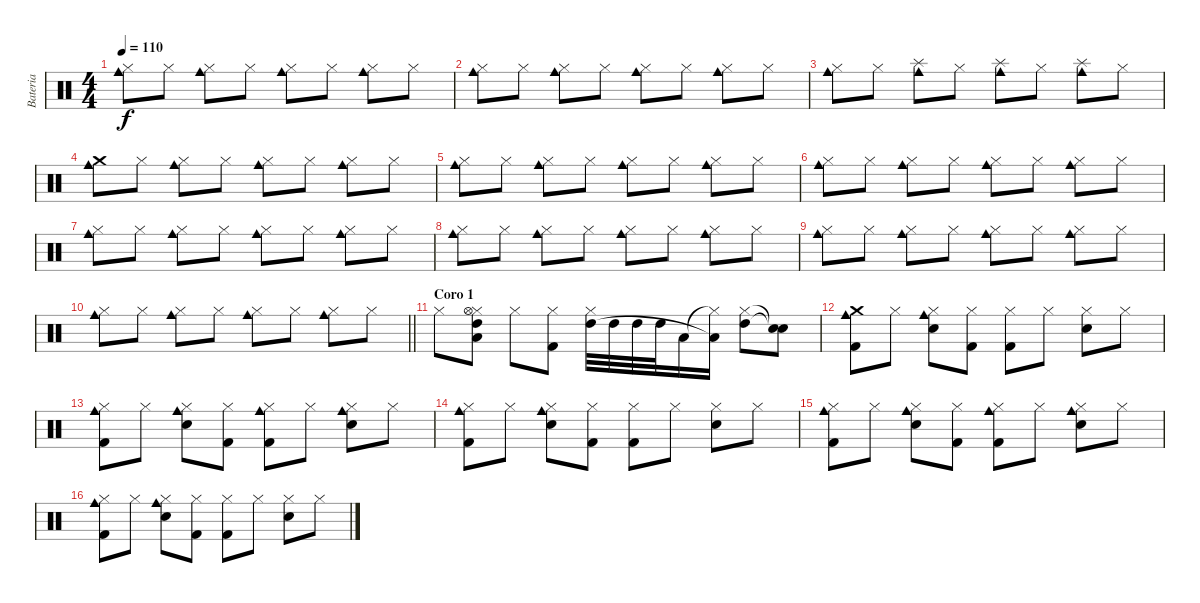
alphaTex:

\track ("Bateria" "Bateria") {instrument percussion}
\staff {score}
\articulation defaults
\ts (4 4)
\tempo 110
\clef neutral
\ks c
("Hi-Hat (closed)" "Cowbell medium (hit)").8{dy f} "Hi-Hat (closed)".8 ("Hi-Hat (closed)" "Cowbell medium (hit)").8 "Hi-Hat (closed)".8 ("Hi-Hat (closed)" "Cowbell medium (hit)").8 "Hi-Hat (closed)".8 ("Hi-Hat (closed)" "Cowbell medium (hit)").8 "Hi-Hat (closed)".8 |
("Hi-Hat (closed)" "Cowbell medium (hit)").8 "Hi-Hat (closed)".8 ("Hi-Hat (closed)" "Cowbell medium (hit)").8 "Hi-Hat (closed)".8 ("Hi-Hat (closed)" "Cowbell medium (hit)").8 "Hi-Hat (closed)".8 ("Hi-Hat (closed)" "Cowbell medium (hit)").8 "Hi-Hat (closed)".8 |
("Hi-Hat (closed)" "Cowbell medium (hit)").8 "Hi-Hat (closed)".8 ("Splash (hit)" "Cowbell medium (hit)").8 "Hi-Hat (closed)".8 ("Splash (hit)" "Cowbell medium (hit)").8 "Hi-Hat (closed)".8 ("Splash (hit)" "Cowbell medium (hit)").8 "Hi-Hat (closed)".8 |
("Crash medium (hit)" "Cowbell medium (hit)").8 "Hi-Hat (closed)".8 ("Hi-Hat (closed)" "Cowbell medium (hit)").8 "Hi-Hat (closed)".8 ("Hi-Hat (closed)" "Cowbell medium (hit)").8 "Hi-Hat (closed)".8 ("Hi-Hat (closed)" "Cowbell medium (hit)").8 "Hi-Hat (closed)".8 |
("Hi-Hat (closed)" "Cowbell medium (hit)").8 "Hi-Hat (closed)".8 ("Hi-Hat (closed)" "Cowbell medium (hit)").8 "Hi-Hat (closed)".8 ("Hi-Hat (closed)" "Cowbell medium (hit)").8 "Hi-Hat (closed)".8 ("Hi-Hat (closed)" "Cowbell medium (hit)").8 "Hi-Hat (closed)".8 |
("Hi-Hat (closed)" "Cowbell medium (hit)").8 "Hi-Hat (closed)".8 ("Hi-Hat (closed)" "Cowbell medium (hit)").8 "Hi-Hat (closed)".8 ("Hi-Hat (closed)" "Cowbell medium (hit)").8 "Hi-Hat (closed)".8 ("Hi-Hat (closed)" "Cowbell medium (hit)").8 "Hi-Hat (closed)".8 |
("Hi-Hat (closed)" "Cowbell medium (hit)").8 "Hi-Hat (closed)".8 ("Hi-Hat (closed)" "Cowbell medium (hit)").8 "Hi-Hat (closed)".8 ("Hi-Hat (closed)" "Cowbell medium (hit)").8 "Hi-Hat (closed)".8 ("Hi-Hat (closed)" "Cowbell medium (hit)").8 "Hi-Hat (closed)".8 |
("Hi-Hat (closed)" "Cowbell medium (hit)").8 "Hi-Hat (closed)".8 ("Hi-Hat (closed)" "Cowbell medium (hit)").8 "Hi-Hat (closed)".8 ("Hi-Hat (closed)" "Cowbell medium (hit)").8 "Hi-Hat (closed)".8 ("Hi-Hat (closed)" "Cowbell medium (hit)").8 "Hi-Hat (closed)".8 |
("Hi-Hat (closed)" "Cowbell medium (hit)").8 "Hi-Hat (closed)".8 ("Hi-Hat (closed)" "Cowbell medium (hit)").8 "Hi-Hat (closed)".8 ("Hi-Hat (closed)" "Cowbell medium (hit)").8 "Hi-Hat (closed)".8 ("Hi-Hat (closed)" "Cowbell medium (hit)").8 "Hi-Hat (closed)".8 |
\barLineRight lightlight
("Hi-Hat (closed)" "Cowbell medium (hit)").8 "Hi-Hat (closed)".8 ("Hi-Hat (closed)" "Cowbell medium (hit)").8 "Hi-Hat (closed)".8 ("Hi-Hat (closed)" "Cowbell medium (hit)").8 "Hi-Hat (closed)".8 ("Hi-Hat (closed)" "Cowbell medium (hit)").8 "Hi-Hat (closed)".8 |
\section ("" "Coro 1")
"Hi-Hat (closed)".8 ("Hi-Hat (closed)" "High Tom (hit)" "Low Tom (hit)" "Hi-Hat (open)").8 "Hi-Hat (closed)".8 ("Hi-Hat (closed)" "Kick (hit) 2").8 ("Hi-Hat (closed)" "High Tom (hit)").32 "High Tom (hit)".32 "High Tom (hit)".32 "High Tom (hit)".32 "Low Tom (hit)".16 ("Hi-Hat (closed)"{t} "Low Tom (hit)"{t}).16 ("Hi-Hat (closed)" "High Tom (hit)").8 ("Snare (hit)"{t} "Snare (hit)"{t}).8 |
("Crash medium (hit)" "Cowbell medium (hit)" "Kick (hit) 2").8 "Hi-Hat (closed)".8 ("Hi-Hat (closed)" "Electric Snare (hit)" "Cowbell medium (hit)").8 ("Hi-Hat (closed)" "Kick (hit) 2").8 ("Hi-Hat (closed)" "Kick (hit) 2").8 "Hi-Hat (closed)".8 ("Hi-Hat (closed)" "Electric Snare (hit)").8 "Hi-Hat (closed)".8 |
("Hi-Hat (closed)" "Cowbell medium (hit)" "Kick (hit) 2").8 "Hi-Hat (closed)".8 ("Hi-Hat (closed)" "Electric Snare (hit)" "Cowbell medium (hit)").8 ("Hi-Hat (closed)" "Kick (hit) 2").8 ("Hi-Hat (closed)" "Cowbell medium (hit)" "Kick (hit) 2").8 "Hi-Hat (closed)".8 ("Hi-Hat (closed)" "Electric Snare (hit)" "Cowbell medium (hit)").8 "Hi-Hat (closed)".8 |
("Hi-Hat (closed)" "Cowbell medium (hit)" "Kick (hit) 2").8 "Hi-Hat (closed)".8 ("Hi-Hat (closed)" "Electric Snare (hit)" "Cowbell medium (hit)").8 ("Hi-Hat (closed)" "Kick (hit) 2").8 ("Hi-Hat (closed)" "Kick (hit) 2").8 "Hi-Hat (closed)".8 ("Hi-Hat (closed)" "Electric Snare (hit)").8 "Hi-Hat (closed)".8 |
("Hi-Hat (closed)" "Cowbell medium (hit)" "Kick (hit) 2").8 "Hi-Hat (closed)".8 ("Hi-Hat (closed)" "Electric Snare (hit)" "Cowbell medium (hit)").8 ("Hi-Hat (closed)" "Kick (hit) 2").8 ("Hi-Hat (closed)" "Cowbell medium (hit)" "Kick (hit) 2").8 "Hi-Hat (closed)".8 ("Hi-Hat (closed)" "Electric Snare (hit)" "Cowbell medium (hit)").8 "Hi-Hat (closed)".8 |
("Hi-Hat (closed)" "Cowbell medium (hit)" "Kick (hit) 2").8 "Hi-Hat (closed)".8 ("Hi-Hat (closed)" "Electric Snare (hit)" "Cowbell medium (hit)").8 ("Hi-Hat (closed)" "Kick (hit) 2").8 ("Hi-Hat (closed)" "Kick (hit) 2").8 "Hi-Hat (closed)".8 ("Hi-Hat (closed)" "Electric Snare (hit)").8 "Hi-Hat (closed)".8
